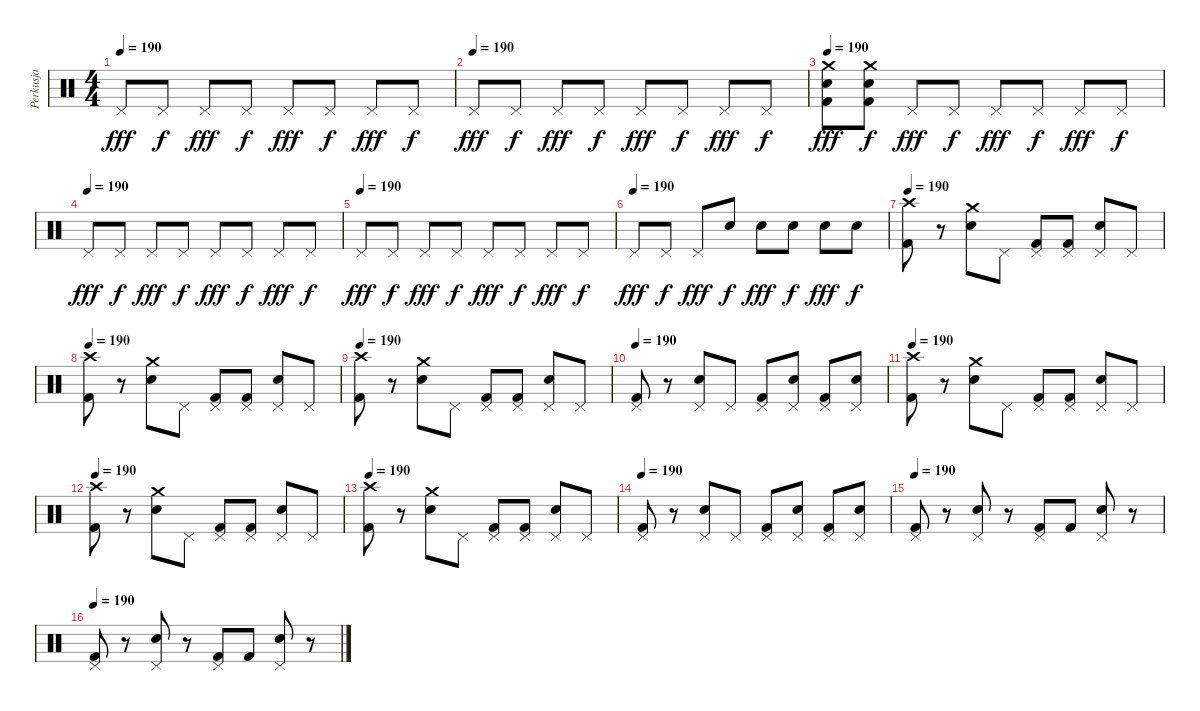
\track ("Perkusja" "Perkusja") {instrument percussion}
\staff {score}
\articulation defaults
\ts (4 4)
\tempo 190
\clef neutral
\ks c "Pedal Hi-Hat (hit)".8{dy fff} "Pedal Hi-Hat (hit)".8{dy f} "Pedal Hi-Hat (hit)".8{dy fff} "Pedal Hi-Hat (hit)".8{dy f} "Pedal Hi-Hat (hit)".8{dy fff} "Pedal Hi-Hat (hit)".8{dy f} "Pedal Hi-Hat (hit)".8{dy fff} "Pedal Hi-Hat (hit)".8{dy f}
|
\tempo (190)
"Pedal Hi-Hat (hit)".8{dy fff} "Pedal Hi-Hat (hit)".8{dy f} "Pedal Hi-Hat (hit)".8{dy fff} "Pedal Hi-Hat (hit)".8{dy f} "Pedal Hi-Hat (hit)".8{dy fff} "Pedal Hi-Hat (hit)".8{dy f} "Pedal Hi-Hat (hit)".8{dy fff} "Pedal Hi-Hat (hit)".8{dy f} |
\tempo 190
("Kick (hit) 2" "Snare (hit) 2" "Crash medium (hit)").8{dy fff} ("Kick (hit) 2" "Snare (hit) 2" "Crash medium (hit)").8{dy f} "Pedal Hi-Hat (hit)".8{dy fff} "Pedal Hi-Hat (hit)".8{dy f} "Pedal Hi-Hat (hit)".8{dy fff} "Pedal Hi-Hat (hit)".8{dy f} "Pedal Hi-Hat (hit)".8{dy fff} "Pedal Hi-Hat (hit)".8{dy f} |
\tempo (190)
"Pedal Hi-Hat (hit)".8{dy fff} "Pedal Hi-Hat (hit)".8{dy f} "Pedal Hi-Hat (hit)".8{dy fff} "Pedal Hi-Hat (hit)".8{dy f} "Pedal Hi-Hat (hit)".8{dy fff} "Pedal Hi-Hat (hit)".8{dy f} "Pedal Hi-Hat (hit)".8{dy fff} "Pedal Hi-Hat (hit)".8{dy f} |
\tempo (190)
"Pedal Hi-Hat (hit)".8{dy fff} "Pedal Hi-Hat (hit)".8{dy f} "Pedal Hi-Hat (hit)".8{dy fff} "Pedal Hi-Hat (hit)".8{dy f} "Pedal Hi-Hat (hit)".8{dy fff} "Pedal Hi-Hat (hit)".8{dy f} "Pedal Hi-Hat (hit)".8{dy fff} "Pedal Hi-Hat (hit)".8{dy f} |
\tempo (190)
"Pedal Hi-Hat (hit)".8{dy fff} "Pedal Hi-Hat (hit)".8{dy f} "Pedal Hi-Hat (hit)".8{dy fff} "Snare (hit) 2".8{dy f} "Snare (hit) 2".8{dy fff} "Snare (hit) 2".8{dy f} "Snare (hit) 2".8{dy fff} "Snare (hit) 2".8{dy f} |
\tempo 190
("Crash high (hit)" "Kick (hit) 2").8 r.8 ("Crash medium (hit)" "Snare (hit) 2").8 "Pedal Hi-Hat (hit)".8 ("Pedal Hi-Hat (hit)" "Kick (hit) 2").8 ("Pedal Hi-Hat (hit)" "Kick (hit) 2").8 ("Pedal Hi-Hat (hit)" "Snare (hit) 2").8 "Pedal Hi-Hat (hit)".8 |
\tempo 190
("Crash high (hit)" "Kick (hit) 2").8 r.8 ("Crash medium (hit)" "Snare (hit) 2").8 "Pedal Hi-Hat (hit)".8 ("Pedal Hi-Hat (hit)" "Kick (hit) 2").8 ("Pedal Hi-Hat (hit)" "Kick (hit) 2").8 ("Pedal Hi-Hat (hit)" "Snare (hit) 2").8 "Pedal Hi-Hat (hit)".8 |
\tempo 190
("Crash high (hit)" "Kick (hit) 2").8 r.8 ("Crash medium (hit)" "Snare (hit) 2").8 "Pedal Hi-Hat (hit)".8 ("Pedal Hi-Hat (hit)" "Kick (hit) 2").8 ("Pedal Hi-Hat (hit)" "Kick (hit) 2").8 ("Pedal Hi-Hat (hit)" "Snare (hit) 2").8 "Pedal Hi-Hat (hit)".8 |
\tempo 190
("Pedal Hi-Hat (hit)" "Kick (hit) 2").8 r.8 ("Pedal Hi-Hat (hit)" "Snare (hit) 2").8 "Pedal Hi-Hat (hit)".8 ("Pedal Hi-Hat (hit)" "Kick (hit) 2").8 ("Pedal Hi-Hat (hit)" "Snare (hit) 2").8 ("Pedal Hi-Hat (hit)" "Kick (hit) 2").8 ("Pedal Hi-Hat (hit)" "Snare (hit) 2").8 |
\tempo 190
("Crash high (hit)" "Kick (hit) 2").8 r.8 ("Crash medium (hit)" "Snare (hit) 2").8 "Pedal Hi-Hat (hit)".8 ("Pedal Hi-Hat (hit)" "Kick (hit) 2").8 ("Pedal Hi-Hat (hit)" "Kick (hit) 2").8 ("Pedal Hi-Hat (hit)" "Snare (hit) 2").8 "Pedal Hi-Hat (hit)".8 |
\tempo 190
("Crash high (hit)" "Kick (hit) 2").8 r.8 ("Crash medium (hit)" "Snare (hit) 2").8 "Pedal Hi-Hat (hit)".8 ("Pedal Hi-Hat (hit)" "Kick (hit) 2").8 ("Pedal Hi-Hat (hit)" "Kick (hit) 2").8 ("Pedal Hi-Hat (hit)" "Snare (hit) 2").8 "Pedal Hi-Hat (hit)".8 |
\tempo 190
("Crash high (hit)" "Kick (hit) 2").8 r.8 ("Crash medium (hit)" "Snare (hit) 2").8 "Pedal Hi-Hat (hit)".8 ("Pedal Hi-Hat (hit)" "Kick (hit) 2").8 ("Pedal Hi-Hat (hit)" "Kick (hit) 2").8 ("Pedal Hi-Hat (hit)" "Snare (hit) 2").8 "Pedal Hi-Hat (hit)".8 |
\tempo 190
("Pedal Hi-Hat (hit)" "Kick (hit) 2").8 r.8 ("Pedal Hi-Hat (hit)" "Snare (hit) 2").8 "Pedal Hi-Hat (hit)".8 ("Pedal Hi-Hat (hit)" "Kick (hit) 2").8 ("Pedal Hi-Hat (hit)" "Snare (hit) 2").8 ("Pedal Hi-Hat (hit)" "Kick (hit) 2").8 ("Pedal Hi-Hat (hit)" "Snare (hit) 2").8 |
\tempo 190
("Pedal Hi-Hat (hit)" "Kick (hit) 2").8 r.8 ("Pedal Hi-Hat (hit)" "Snare (hit) 2").8 r.8 ("Pedal Hi-Hat (hit)" "Kick (hit) 2").8 "Kick (hit) 2".8 ("Pedal Hi-Hat (hit)" "Snare (hit) 2").8 r.8 |
\tempo 190
("Pedal Hi-Hat (hit)" "Kick (hit) 2").8 r.8 ("Pedal Hi-Hat (hit)" "Snare (hit) 2").8 r.8 ("Pedal Hi-Hat (hit)" "Kick (hit) 2").8 "Kick (hit) 2".8 ("Pedal Hi-Hat (hit)" "Snare (hit) 2").8 r.8
